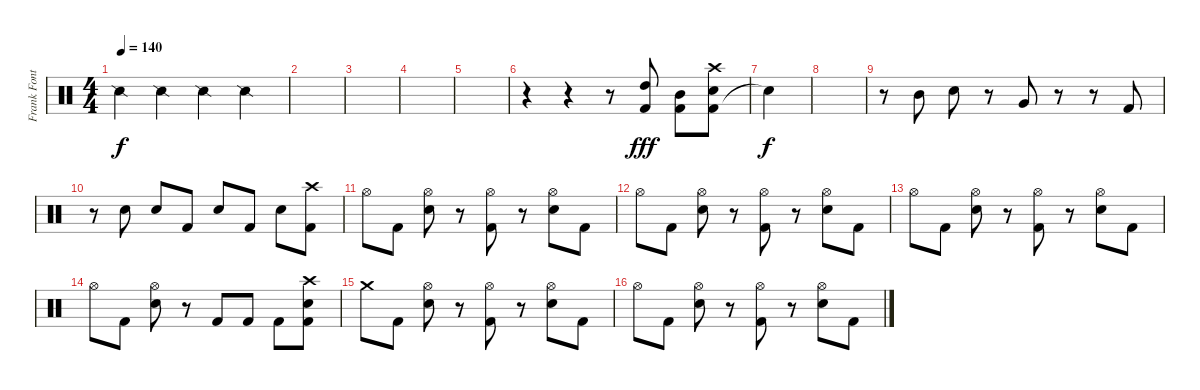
\track ("Frank Fontsere" "Frank Font") {instrument percussion}
\staff {score}
\articulation defaults
\ts (4 4)
\tempo 140
\clef neutral
\ks c "Snare (side stick) 2".4{dy f} "Snare (side stick) 2".4 "Snare (side stick) 2".4 "Snare (side stick) 2".4
|
|
|
|
|
r.4 r.4 r.8 ("Kick (hit) 2" "High Tom (hit)").8{dy fff} ("Kick (hit) 2" "Mid Tom (hit)").8 ("Kick (hit) 2" "Electric Snare (hit)" "Crash high (hit)").8 |
"Snare (hit)"{t}.4{dy f} |
|
r.8 "Mid Tom (hit)".8 "Electric Snare (hit)".8 r.8 "Very Low Tom (hit)".8 r.8 r.8 "Kick (hit) 2".8 |
r.8 "Electric Snare (hit)".8 "Electric Snare (hit)".8 "Kick (hit) 2".8 "Electric Snare (hit)".8 "Kick (hit) 2".8 "Electric Snare (hit)".8 ("Crash high (hit)" "Kick (hit) 2").8 |
"Hi-Hat (open)".8 "Kick (hit) 2".8 ("Hi-Hat (open)" "Electric Snare (hit)").8 r.8 ("Hi-Hat (open)" "Kick (hit) 2").8 r.8 ("Hi-Hat (open)" "Electric Snare (hit)").8 "Kick (hit) 2".8 |
"Hi-Hat (open)".8 "Kick (hit) 2".8 ("Hi-Hat (open)" "Electric Snare (hit)").8 r.8 ("Hi-Hat (open)" "Kick (hit) 2").8 r.8 ("Hi-Hat (open)" "Electric Snare (hit)").8 "Kick (hit) 2".8 |
"Hi-Hat (open)".8 "Kick (hit) 2".8 ("Hi-Hat (open)" "Electric Snare (hit)").8 r.8 ("Hi-Hat (open)" "Kick (hit) 2").8 r.8 ("Hi-Hat (open)" "Electric Snare (hit)").8 "Kick (hit) 2".8 |
"Hi-Hat (open)".8 "Kick (hit) 2".8 ("Hi-Hat (open)" "Electric Snare (hit)").8 r.8 "Kick (hit) 2".8 "Kick (hit) 2".8 "Kick (hit) 2".8 ("Crash high (hit)" "Kick (hit) 2" "Electric Snare (hit)").8 |
"Crash medium (hit)".8 "Kick (hit) 2".8 ("Hi-Hat (open)" "Electric Snare (hit)").8 r.8 ("Hi-Hat (open)" "Kick (hit) 2").8 r.8 ("Hi-Hat (open)" "Electric Snare (hit)").8 "Kick (hit) 2".8 |
"Hi-Hat (open)".8 "Kick (hit) 2".8 ("Hi-Hat (open)" "Electric Snare (hit)").8 r.8 ("Hi-Hat (open)" "Kick (hit) 2").8 r.8 ("Hi-Hat (open)" "Electric Snare (hit)").8 "Kick (hit) 2".8
